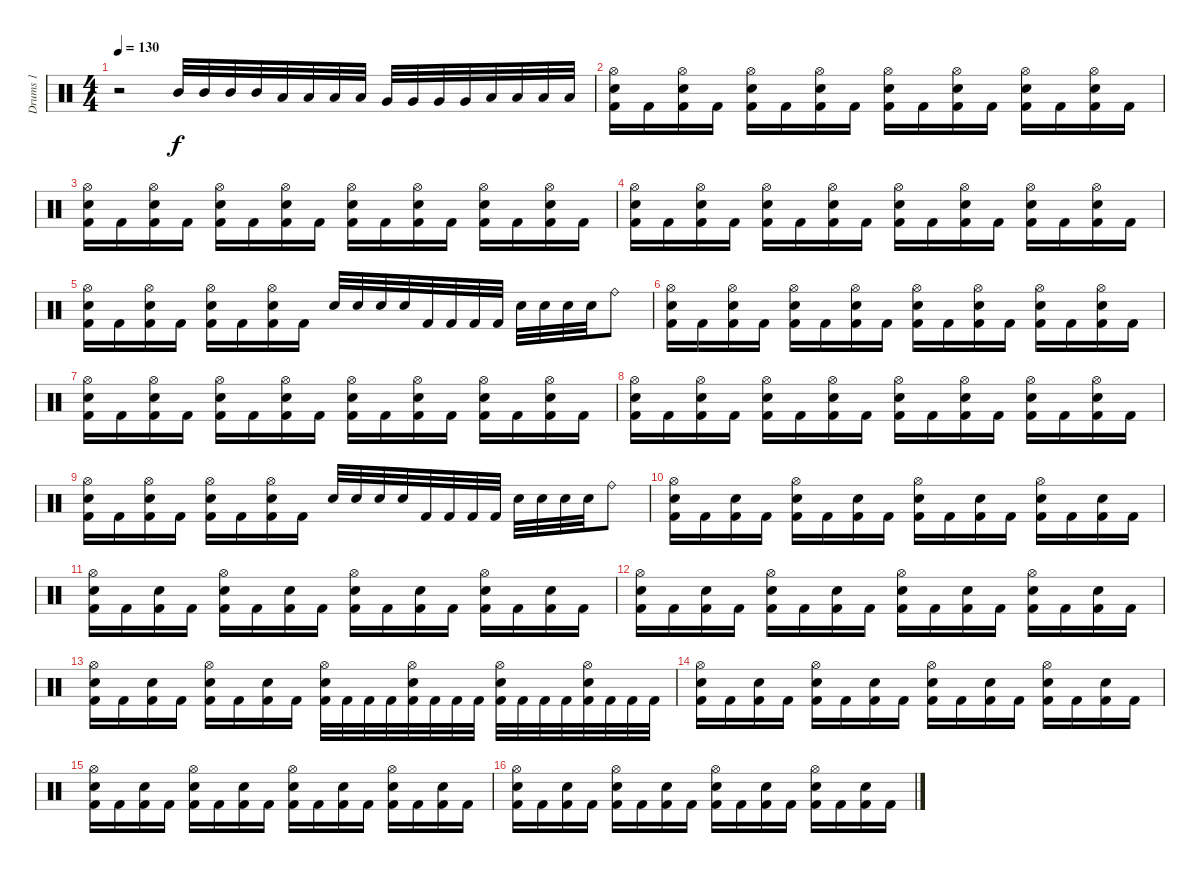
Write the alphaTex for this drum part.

\track ("Drums 1" "Drums 1") {instrument percussion}
\staff {score}
\articulation defaults
\ts (4 4)
\tempo 130
\clef neutral
\ks c
r.2{dy f} "Mid Tom (hit)".32 "Mid Tom (hit)".32 "Mid Tom (hit)".32 "Mid Tom (hit)".32 "Low Tom (hit)".32 "Low Tom (hit)".32 "Low Tom (hit)".32 "Low Tom (hit)".32 "Very Low Tom (hit)".32 "Very Low Tom (hit)".32 "Very Low Tom (hit)".32 "Very Low Tom (hit)".32 "Low Floor Tom (hit)".32 "Low Floor Tom (hit)".32 "Low Floor Tom (hit)".32 "Low Floor Tom (hit)".32 |
("Hi-Hat (open)" "Snare (hit) 2" "Kick (hit) 2").16 "Kick (hit) 2".16 ("Hi-Hat (open)" "Snare (hit) 2" "Kick (hit) 2").16 "Kick (hit) 2".16 ("Hi-Hat (open)" "Snare (hit) 2" "Kick (hit) 2").16 "Kick (hit) 2".16 ("Hi-Hat (open)" "Snare (hit) 2" "Kick (hit) 2").16 "Kick (hit) 2".16 ("Hi-Hat (open)" "Snare (hit) 2" "Kick (hit) 2").16 "Kick (hit) 2".16 ("Hi-Hat (open)" "Snare (hit) 2" "Kick (hit) 2").16 "Kick (hit) 2".16 ("Hi-Hat (open)" "Snare (hit) 2" "Kick (hit) 2").16 "Kick (hit) 2".16 ("Hi-Hat (open)" "Snare (hit) 2" "Kick (hit) 2").16 "Kick (hit) 2".16 |
("Hi-Hat (open)" "Snare (hit) 2" "Kick (hit) 2").16 "Kick (hit) 2".16 ("Hi-Hat (open)" "Snare (hit) 2" "Kick (hit) 2").16 "Kick (hit) 2".16 ("Hi-Hat (open)" "Snare (hit) 2" "Kick (hit) 2").16 "Kick (hit) 2".16 ("Hi-Hat (open)" "Snare (hit) 2" "Kick (hit) 2").16 "Kick (hit) 2".16 ("Hi-Hat (open)" "Snare (hit) 2" "Kick (hit) 2").16 "Kick (hit) 2".16 ("Hi-Hat (open)" "Snare (hit) 2" "Kick (hit) 2").16 "Kick (hit) 2".16 ("Hi-Hat (open)" "Snare (hit) 2" "Kick (hit) 2").16 "Kick (hit) 2".16 ("Hi-Hat (open)" "Snare (hit) 2" "Kick (hit) 2").16 "Kick (hit) 2".16 |
("Hi-Hat (open)" "Snare (hit) 2" "Kick (hit) 2").16 "Kick (hit) 2".16 ("Hi-Hat (open)" "Snare (hit) 2" "Kick (hit) 2").16 "Kick (hit) 2".16 ("Hi-Hat (open)" "Snare (hit) 2" "Kick (hit) 2").16 "Kick (hit) 2".16 ("Hi-Hat (open)" "Snare (hit) 2" "Kick (hit) 2").16 "Kick (hit) 2".16 ("Hi-Hat (open)" "Snare (hit) 2" "Kick (hit) 2").16 "Kick (hit) 2".16 ("Hi-Hat (open)" "Snare (hit) 2" "Kick (hit) 2").16 "Kick (hit) 2".16 ("Hi-Hat (open)" "Snare (hit) 2" "Kick (hit) 2").16 "Kick (hit) 2".16 ("Hi-Hat (open)" "Snare (hit) 2" "Kick (hit) 2").16 "Kick (hit) 2".16 |
("Hi-Hat (open)" "Snare (hit) 2" "Kick (hit) 2").16 "Kick (hit) 2".16 ("Hi-Hat (open)" "Snare (hit) 2" "Kick (hit) 2").16 "Kick (hit) 2".16 ("Hi-Hat (open)" "Snare (hit) 2" "Kick (hit) 2").16 "Kick (hit) 2".16 ("Hi-Hat (open)" "Snare (hit) 2" "Kick (hit) 2").16 "Kick (hit) 2".16 "Snare (hit) 2".32 "Snare (hit) 2".32 "Snare (hit) 2".32 "Snare (hit) 2".32 "Kick (hit) 2".32 "Kick (hit) 2".32 "Kick (hit) 2".32 "Kick (hit) 2".32 "Snare (hit) 2".32 "Snare (hit) 2".32 "Snare (hit) 2".32 "Snare (hit) 2".32 "Ride (bell)".8 |
("Hi-Hat (open)" "Snare (hit) 2" "Kick (hit) 2").16 "Kick (hit) 2".16 ("Hi-Hat (open)" "Snare (hit) 2" "Kick (hit) 2").16 "Kick (hit) 2".16 ("Hi-Hat (open)" "Snare (hit) 2" "Kick (hit) 2").16 "Kick (hit) 2".16 ("Hi-Hat (open)" "Snare (hit) 2" "Kick (hit) 2").16 "Kick (hit) 2".16 ("Hi-Hat (open)" "Snare (hit) 2" "Kick (hit) 2").16 "Kick (hit) 2".16 ("Hi-Hat (open)" "Snare (hit) 2" "Kick (hit) 2").16 "Kick (hit) 2".16 ("Hi-Hat (open)" "Snare (hit) 2" "Kick (hit) 2").16 "Kick (hit) 2".16 ("Hi-Hat (open)" "Snare (hit) 2" "Kick (hit) 2").16 "Kick (hit) 2".16 |
("Hi-Hat (open)" "Snare (hit) 2" "Kick (hit) 2").16 "Kick (hit) 2".16 ("Hi-Hat (open)" "Snare (hit) 2" "Kick (hit) 2").16 "Kick (hit) 2".16 ("Hi-Hat (open)" "Snare (hit) 2" "Kick (hit) 2").16 "Kick (hit) 2".16 ("Hi-Hat (open)" "Snare (hit) 2" "Kick (hit) 2").16 "Kick (hit) 2".16 ("Hi-Hat (open)" "Snare (hit) 2" "Kick (hit) 2").16 "Kick (hit) 2".16 ("Hi-Hat (open)" "Snare (hit) 2" "Kick (hit) 2").16 "Kick (hit) 2".16 ("Hi-Hat (open)" "Snare (hit) 2" "Kick (hit) 2").16 "Kick (hit) 2".16 ("Hi-Hat (open)" "Snare (hit) 2" "Kick (hit) 2").16 "Kick (hit) 2".16 |
("Hi-Hat (open)" "Snare (hit) 2" "Kick (hit) 2").16 "Kick (hit) 2".16 ("Hi-Hat (open)" "Snare (hit) 2" "Kick (hit) 2").16 "Kick (hit) 2".16 ("Hi-Hat (open)" "Snare (hit) 2" "Kick (hit) 2").16 "Kick (hit) 2".16 ("Hi-Hat (open)" "Snare (hit) 2" "Kick (hit) 2").16 "Kick (hit) 2".16 ("Hi-Hat (open)" "Snare (hit) 2" "Kick (hit) 2").16 "Kick (hit) 2".16 ("Hi-Hat (open)" "Snare (hit) 2" "Kick (hit) 2").16 "Kick (hit) 2".16 ("Hi-Hat (open)" "Snare (hit) 2" "Kick (hit) 2").16 "Kick (hit) 2".16 ("Hi-Hat (open)" "Snare (hit) 2" "Kick (hit) 2").16 "Kick (hit) 2".16 |
("Hi-Hat (open)" "Snare (hit) 2" "Kick (hit) 2").16 "Kick (hit) 2".16 ("Hi-Hat (open)" "Snare (hit) 2" "Kick (hit) 2").16 "Kick (hit) 2".16 ("Hi-Hat (open)" "Snare (hit) 2" "Kick (hit) 2").16 "Kick (hit) 2".16 ("Hi-Hat (open)" "Snare (hit) 2" "Kick (hit) 2").16 "Kick (hit) 2".16 "Snare (hit) 2".32 "Snare (hit) 2".32 "Snare (hit) 2".32 "Snare (hit) 2".32 "Kick (hit) 2".32 "Kick (hit) 2".32 "Kick (hit) 2".32 "Kick (hit) 2".32 "Snare (hit) 2".32 "Snare (hit) 2".32 "Snare (hit) 2".32 "Snare (hit) 2".32 "Ride (bell)".8 |
("Hi-Hat (open)" "Snare (hit) 2" "Kick (hit) 2").16 "Kick (hit) 2".16 ("Snare (hit) 2" "Kick (hit) 2").16 "Kick (hit) 2".16 ("Hi-Hat (open)" "Snare (hit) 2" "Kick (hit) 2").16 "Kick (hit) 2".16 ("Snare (hit) 2" "Kick (hit) 2").16 "Kick (hit) 2".16 ("Hi-Hat (open)" "Snare (hit) 2" "Kick (hit) 2").16 "Kick (hit) 2".16 ("Snare (hit) 2" "Kick (hit) 2").16 "Kick (hit) 2".16 ("Hi-Hat (open)" "Snare (hit) 2" "Kick (hit) 2").16 "Kick (hit) 2".16 ("Snare (hit) 2" "Kick (hit) 2").16 "Kick (hit) 2".16 |
("Hi-Hat (open)" "Snare (hit) 2" "Kick (hit) 2").16 "Kick (hit) 2".16 ("Snare (hit) 2" "Kick (hit) 2").16 "Kick (hit) 2".16 ("Hi-Hat (open)" "Snare (hit) 2" "Kick (hit) 2").16 "Kick (hit) 2".16 ("Snare (hit) 2" "Kick (hit) 2").16 "Kick (hit) 2".16 ("Hi-Hat (open)" "Snare (hit) 2" "Kick (hit) 2").16 "Kick (hit) 2".16 ("Snare (hit) 2" "Kick (hit) 2").16 "Kick (hit) 2".16 ("Hi-Hat (open)" "Snare (hit) 2" "Kick (hit) 2").16 "Kick (hit) 2".16 ("Snare (hit) 2" "Kick (hit) 2").16 "Kick (hit) 2".16 |
("Hi-Hat (open)" "Snare (hit) 2" "Kick (hit) 2").16 "Kick (hit) 2".16 ("Snare (hit) 2" "Kick (hit) 2").16 "Kick (hit) 2".16 ("Hi-Hat (open)" "Snare (hit) 2" "Kick (hit) 2").16 "Kick (hit) 2".16 ("Snare (hit) 2" "Kick (hit) 2").16 "Kick (hit) 2".16 ("Hi-Hat (open)" "Snare (hit) 2" "Kick (hit) 2").16 "Kick (hit) 2".16 ("Snare (hit) 2" "Kick (hit) 2").16 "Kick (hit) 2".16 ("Hi-Hat (open)" "Snare (hit) 2" "Kick (hit) 2").16 "Kick (hit) 2".16 ("Snare (hit) 2" "Kick (hit) 2").16 "Kick (hit) 2".16 |
("Hi-Hat (open)" "Snare (hit) 2" "Kick (hit) 2").16 "Kick (hit) 2".16 ("Snare (hit) 2" "Kick (hit) 2").16 "Kick (hit) 2".16 ("Hi-Hat (open)" "Snare (hit) 2" "Kick (hit) 2").16 "Kick (hit) 2".16 ("Snare (hit) 2" "Kick (hit) 2").16 "Kick (hit) 2".16 ("Hi-Hat (open)" "Snare (hit) 2" "Kick (hit) 2").32 "Kick (hit) 2".32 "Kick (hit) 2".32 "Kick (hit) 2".32 ("Hi-Hat (open)" "Snare (hit) 2" "Kick (hit) 2").32 "Kick (hit) 2".32 "Kick (hit) 2".32 "Kick (hit) 2".32 ("Hi-Hat (open)" "Snare (hit) 2" "Kick (hit) 2").32 "Kick (hit) 2".32 "Kick (hit) 2".32 "Kick (hit) 2".32 ("Hi-Hat (open)" "Snare (hit) 2" "Kick (hit) 2").32 "Kick (hit) 2".32 "Kick (hit) 2".32 "Kick (hit) 2".32 |
("Hi-Hat (open)" "Snare (hit) 2" "Kick (hit) 2").16 "Kick (hit) 2".16 ("Snare (hit) 2" "Kick (hit) 2").16 "Kick (hit) 2".16 ("Hi-Hat (open)" "Snare (hit) 2" "Kick (hit) 2").16 "Kick (hit) 2".16 ("Snare (hit) 2" "Kick (hit) 2").16 "Kick (hit) 2".16 ("Hi-Hat (open)" "Snare (hit) 2" "Kick (hit) 2").16 "Kick (hit) 2".16 ("Snare (hit) 2" "Kick (hit) 2").16 "Kick (hit) 2".16 ("Hi-Hat (open)" "Snare (hit) 2" "Kick (hit) 2").16 "Kick (hit) 2".16 ("Snare (hit) 2" "Kick (hit) 2").16 "Kick (hit) 2".16 |
("Hi-Hat (open)" "Snare (hit) 2" "Kick (hit) 2").16 "Kick (hit) 2".16 ("Snare (hit) 2" "Kick (hit) 2").16 "Kick (hit) 2".16 ("Hi-Hat (open)" "Snare (hit) 2" "Kick (hit) 2").16 "Kick (hit) 2".16 ("Snare (hit) 2" "Kick (hit) 2").16 "Kick (hit) 2".16 ("Hi-Hat (open)" "Snare (hit) 2" "Kick (hit) 2").16 "Kick (hit) 2".16 ("Snare (hit) 2" "Kick (hit) 2").16 "Kick (hit) 2".16 ("Hi-Hat (open)" "Snare (hit) 2" "Kick (hit) 2").16 "Kick (hit) 2".16 ("Snare (hit) 2" "Kick (hit) 2").16 "Kick (hit) 2".16 |
("Hi-Hat (open)" "Snare (hit) 2" "Kick (hit) 2").16 "Kick (hit) 2".16 ("Snare (hit) 2" "Kick (hit) 2").16 "Kick (hit) 2".16 ("Hi-Hat (open)" "Snare (hit) 2" "Kick (hit) 2").16 "Kick (hit) 2".16 ("Snare (hit) 2" "Kick (hit) 2").16 "Kick (hit) 2".16 ("Hi-Hat (open)" "Snare (hit) 2" "Kick (hit) 2").16 "Kick (hit) 2".16 ("Snare (hit) 2" "Kick (hit) 2").16 "Kick (hit) 2".16 ("Hi-Hat (open)" "Snare (hit) 2" "Kick (hit) 2").16 "Kick (hit) 2".16 ("Snare (hit) 2" "Kick (hit) 2").16 "Kick (hit) 2".16
